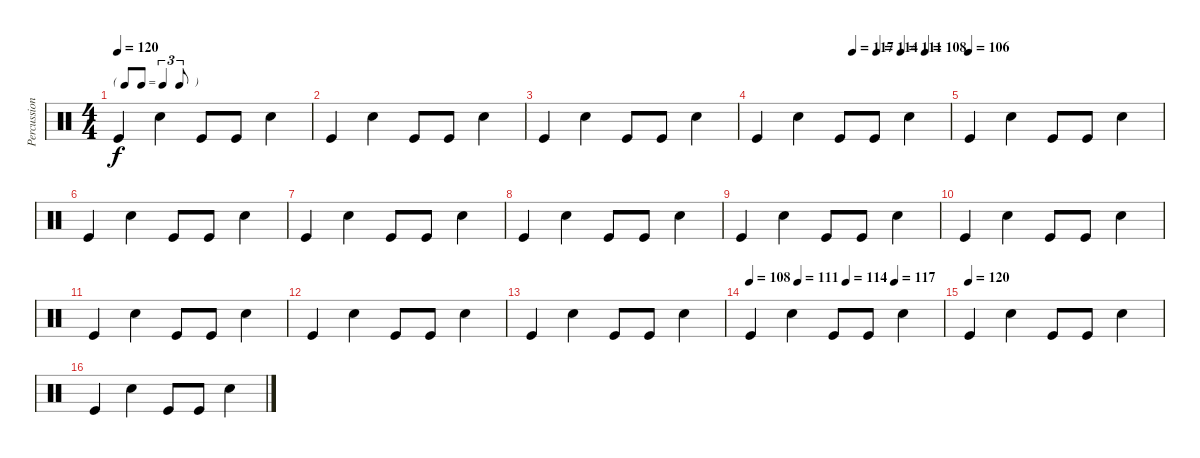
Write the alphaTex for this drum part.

\track ("Percussion" "Percussion") {instrument percussion}
\staff {score}
\articulation defaults
\ts (4 4)
\tf triplet8th
\tempo 120
\clef neutral
\ks c "Kick (hit)".4{dy f} "Snare (hit) 2".4 "Kick (hit)".8 "Kick (hit)".8 "Snare (hit) 2".4
|
"Kick (hit)".4 "Snare (hit) 2".4 "Kick (hit)".8 "Kick (hit)".8 "Snare (hit) 2".4 |
"Kick (hit)".4 "Snare (hit) 2".4 "Kick (hit)".8 "Kick (hit)".8 "Snare (hit) 2".4 |
\tempo (117 0.5)
\tempo (114 0.625)
\tempo (111 0.75)
\tempo (108 0.875)
"Kick (hit)".4 "Snare (hit) 2".4 "Kick (hit)".8 "Kick (hit)".8 "Snare (hit) 2".4 |
\tempo (106)
"Kick (hit)".4 "Snare (hit) 2".4 "Kick (hit)".8 "Kick (hit)".8 "Snare (hit) 2".4 |
"Kick (hit)".4 "Snare (hit) 2".4 "Kick (hit)".8 "Kick (hit)".8 "Snare (hit) 2".4 |
"Kick (hit)".4 "Snare (hit) 2".4 "Kick (hit)".8 "Kick (hit)".8 "Snare (hit) 2".4 |
"Kick (hit)".4 "Snare (hit) 2".4 "Kick (hit)".8 "Kick (hit)".8 "Snare (hit) 2".4 |
"Kick (hit)".4 "Snare (hit) 2".4 "Kick (hit)".8 "Kick (hit)".8 "Snare (hit) 2".4 |
"Kick (hit)".4 "Snare (hit) 2".4 "Kick (hit)".8 "Kick (hit)".8 "Snare (hit) 2".4 |
"Kick (hit)".4 "Snare (hit) 2".4 "Kick (hit)".8 "Kick (hit)".8 "Snare (hit) 2".4 |
"Kick (hit)".4 "Snare (hit) 2".4 "Kick (hit)".8 "Kick (hit)".8 "Snare (hit) 2".4 |
"Kick (hit)".4 "Snare (hit) 2".4 "Kick (hit)".8 "Kick (hit)".8 "Snare (hit) 2".4 |
\tempo 108
\tempo (111 0.25)
\tempo (114 0.5)
\tempo (117 0.75)
"Kick (hit)".4 "Snare (hit) 2".4 "Kick (hit)".8 "Kick (hit)".8 "Snare (hit) 2".4 |
\tempo (120)
"Kick (hit)".4 "Snare (hit) 2".4 "Kick (hit)".8 "Kick (hit)".8 "Snare (hit) 2".4 |
"Kick (hit)".4 "Snare (hit) 2".4 "Kick (hit)".8 "Kick (hit)".8 "Snare (hit) 2".4
